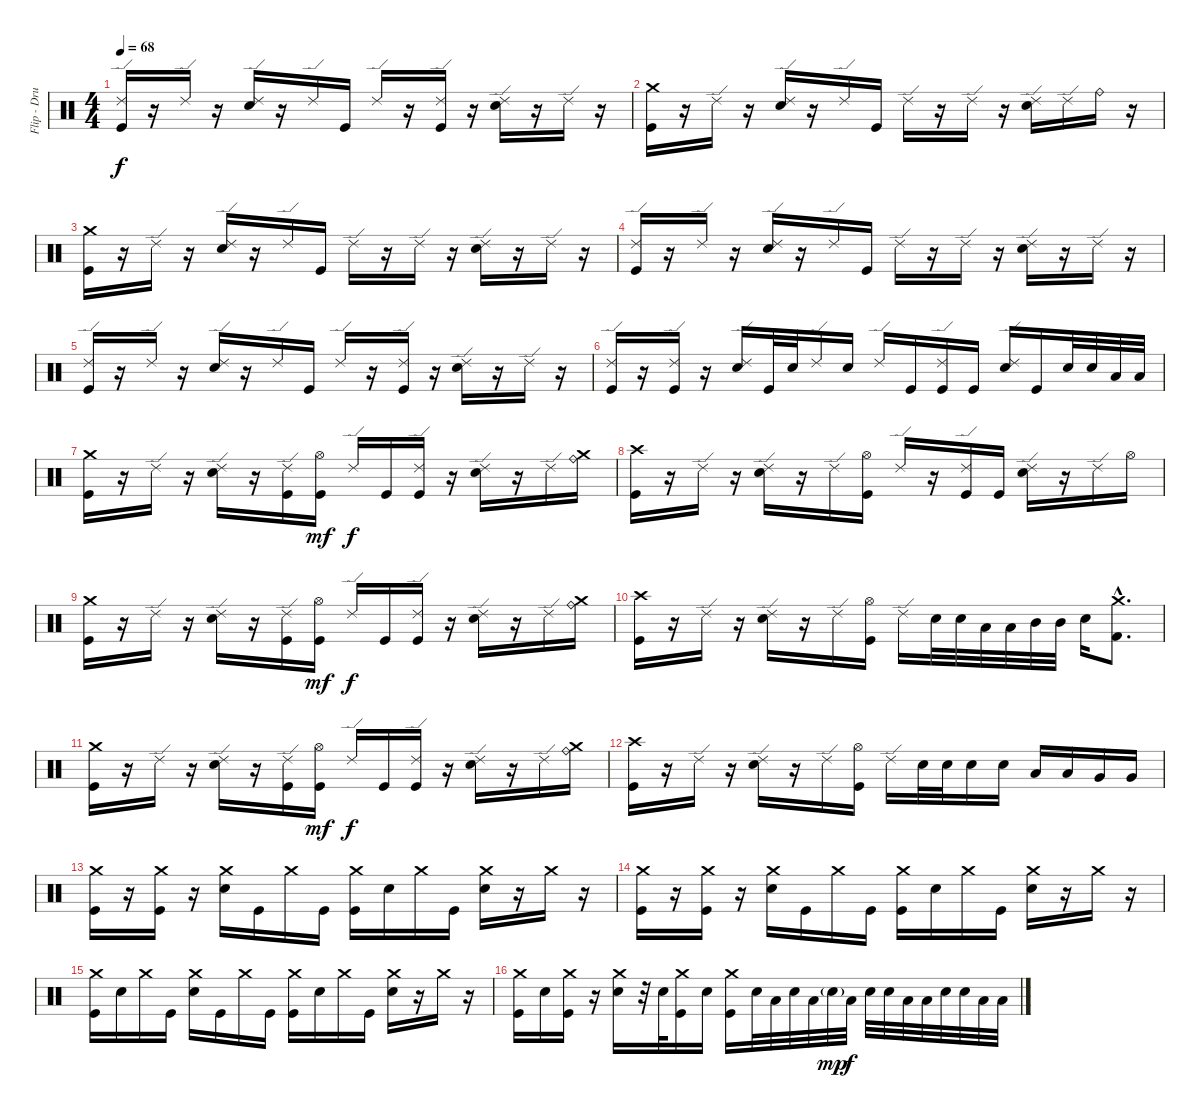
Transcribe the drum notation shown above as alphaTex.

\track ("Flip - Drums" "Flip - Dru") {instrument percussion}
\staff {score}
\articulation defaults
\ts (4 4)
\tempo 68
\clef neutral
\ks c
("Ride (edge) 2" "Kick (hit)").16{dy f} r.16 "Ride (edge) 2".16 r.16 ("Ride (edge) 2" "Snare (hit) 2").16 r.16 "Ride (edge) 2".16 "Kick (hit)".16 "Ride (edge) 2".16 r.16 ("Ride (edge) 2" "Kick (hit)").16 r.16 ("Ride (edge) 2" "Snare (hit) 2").16 r.16 "Ride (edge) 2".16 r.16 |
("Crash medium (hit)" "Kick (hit)").16 r.16 "Ride (edge) 2".16 r.16 ("Ride (edge) 2" "Snare (hit) 2").16 r.16 "Ride (edge) 2".16 "Kick (hit)".16 "Ride (edge) 2".16 r.16 "Ride (edge) 2".16 r.16 ("Ride (edge) 2" "Snare (hit) 2").16 "Ride (edge) 2".16 "Ride (bell)".16 r.16 |
("Crash medium (hit)" "Kick (hit)").16 r.16 "Ride (edge) 2".16 r.16 ("Ride (edge) 2" "Snare (hit) 2").16 r.16 "Ride (edge) 2".16 "Kick (hit)".16 "Ride (edge) 2".16 r.16 "Ride (edge) 2".16 r.16 ("Ride (edge) 2" "Snare (hit) 2").16 r.16 "Ride (edge) 2".16 r.16 |
("Ride (edge) 2" "Kick (hit)").16 r.16 "Ride (edge) 2".16 r.16 ("Ride (edge) 2" "Snare (hit) 2").16 r.16 "Ride (edge) 2".16 "Kick (hit)".16 "Ride (edge) 2".16 r.16 "Ride (edge) 2".16 r.16 ("Ride (edge) 2" "Snare (hit) 2").16 r.16 "Ride (edge) 2".16 r.16 |
("Ride (edge) 2" "Kick (hit)").16 r.16 "Ride (edge) 2".16 r.16 ("Ride (edge) 2" "Snare (hit) 2").16 r.16 "Ride (edge) 2".16 "Kick (hit)".16 "Ride (edge) 2".16 r.16 ("Ride (edge) 2" "Kick (hit)").16 r.16 ("Ride (edge) 2" "Snare (hit) 2").16 r.16 "Ride (edge) 2".16 r.16 |
("Ride (edge) 2" "Kick (hit)").16 r.16 ("Ride (edge) 2" "Kick (hit)").16 r.16 ("Ride (edge) 2" "Snare (hit) 2").16 "Kick (hit)".32 "Snare (hit) 2".32 "Ride (edge) 2".16 "Snare (hit) 2".16 "Ride (edge) 2".16 "Kick (hit)".16 ("Ride (edge) 2" "Kick (hit)").16 "Kick (hit)".16 ("Ride (edge) 2" "Snare (hit) 2").16 "Kick (hit)".16 "Snare (hit) 2".32 "Snare (hit) 2".32 "Low Tom (hit)".32 "Low Tom (hit)".32 |
("Crash medium (hit)" "Kick (hit)").16 r.16 "Ride (edge) 2".16 r.16 ("Ride (edge) 2" "Snare (hit) 2").16 r.16 ("Ride (edge) 2" "Kick (hit)").16 ("Hi-Hat (open)" "Kick (hit)").16{dy mf} "Ride (edge) 2".16{dy f} "Kick (hit)".16 ("Ride (edge) 2" "Kick (hit)").16 r.16 ("Ride (edge) 2" "Snare (hit) 2").16 r.16 "Ride (edge) 2".16 ("Crash medium (hit)" "Ride (bell)").16 |
("Crash high (hit)" "Kick (hit)").16 r.16 "Ride (edge) 2".16 r.16 ("Ride (edge) 2" "Snare (hit) 2").16 r.16 "Ride (edge) 2".16 ("Hi-Hat (open)" "Kick (hit)").16 "Ride (edge) 2".16 r.16 ("Ride (edge) 2" "Kick (hit)").16 "Kick (hit)".16 ("Ride (edge) 2" "Snare (hit) 2").16 r.16 "Ride (edge) 2".16 "Hi-Hat (open)".16 |
("Crash medium (hit)" "Kick (hit)").16 r.16 "Ride (edge) 2".16 r.16 ("Ride (edge) 2" "Snare (hit) 2").16 r.16 ("Ride (edge) 2" "Kick (hit)").16 ("Hi-Hat (open)" "Kick (hit)").16{dy mf} "Ride (edge) 2".16{dy f} "Kick (hit)".16 ("Ride (edge) 2" "Kick (hit)").16 r.16 ("Ride (edge) 2" "Snare (hit) 2").16 r.16 "Ride (edge) 2".16 ("Crash medium (hit)" "Ride (bell)").16 |
("Crash high (hit)" "Kick (hit)").16 r.16 "Ride (edge) 2".16 r.16 ("Ride (edge) 2" "Snare (hit) 2").16 r.16 "Ride (edge) 2".16 ("Hi-Hat (open)" "Kick (hit)").16 "Ride (edge) 2".16 "Snare (hit) 2".32 "Snare (hit) 2".32 "Low Tom (hit)".32 "Low Tom (hit)".32 "Mid Tom (hit)".32 "Mid Tom (hit)".32 "Snare (hit) 2".16 ("Crash medium (hit)"{hac} "Kick (hit) 2"{hac}).8{d} |
("Crash medium (hit)" "Kick (hit)").16 r.16 "Ride (edge) 2".16 r.16 ("Ride (edge) 2" "Snare (hit) 2").16 r.16 ("Ride (edge) 2" "Kick (hit)").16 ("Hi-Hat (open)" "Kick (hit)").16{dy mf} "Ride (edge) 2".16{dy f} "Kick (hit)".16 ("Ride (edge) 2" "Kick (hit)").16 r.16 ("Ride (edge) 2" "Snare (hit) 2").16 r.16 "Ride (edge) 2".16 ("Crash medium (hit)" "Ride (bell)").16 |
("Crash high (hit)" "Kick (hit)").16 r.16 "Ride (edge) 2".16 r.16 ("Ride (edge) 2" "Snare (hit) 2").16 r.16 "Ride (edge) 2".16 ("Hi-Hat (open)" "Kick (hit)").16 "Ride (edge) 2".16 "Snare (hit) 2".32 "Snare (hit) 2".32 "Snare (hit) 2".16 "Snare (hit) 2".16 "Low Tom (hit)".16 "Low Tom (hit)".16 "Very Low Tom (hit)".16 "Very Low Tom (hit)".16 |
("Crash medium (hit)" "Kick (hit)").16 r.16 ("Crash medium (hit)" "Kick (hit)").16 r.16 ("Crash medium (hit)" "Snare (hit) 2").16 "Kick (hit)".16 "Crash medium (hit)".16 "Kick (hit)".16 ("Crash medium (hit)" "Kick (hit)").16 "Snare (hit) 2".16 "Crash medium (hit)".16 "Kick (hit)".16 ("Crash medium (hit)" "Snare (hit) 2").16 r.16 "Crash medium (hit)".16 r.16 |
("Crash medium (hit)" "Kick (hit)").16 r.16 ("Crash medium (hit)" "Kick (hit)").16 r.16 ("Crash medium (hit)" "Snare (hit) 2").16 "Kick (hit)".16 "Crash medium (hit)".16 "Kick (hit)".16 ("Crash medium (hit)" "Kick (hit)").16 "Snare (hit) 2".16 "Crash medium (hit)".16 "Kick (hit)".16 ("Crash medium (hit)" "Snare (hit) 2").16 r.16 "Crash medium (hit)".16 r.16 |
("Crash medium (hit)" "Kick (hit)").16 "Snare (hit) 2".16 "Crash medium (hit)".16 "Kick (hit)".16 ("Crash medium (hit)" "Snare (hit) 2").16 "Kick (hit)".16 "Crash medium (hit)".16 "Kick (hit)".16 ("Crash medium (hit)" "Kick (hit)").16 "Snare (hit) 2".16 "Crash medium (hit)".16 "Kick (hit)".16 ("Crash medium (hit)" "Snare (hit) 2").16 r.16 "Crash medium (hit)".16 r.16 |
("Crash medium (hit)" "Kick (hit)").16 "Snare (hit) 2".16 ("Crash medium (hit)" "Kick (hit)").16 r.16 ("Crash medium (hit)" "Snare (hit) 2").16 r.32 "Snare (hit) 2".32 ("Crash medium (hit)" "Kick (hit)").16 "Snare (hit) 2".16 ("Crash medium (hit)" "Kick (hit)").16 "Snare (hit) 2".32 "Low Tom (hit)".32 "Snare (hit) 2".32 "Low Tom (hit)".32 "Snare (hit) 2"{g}.32{dy mp} "Low Tom (hit)".32{dy f} "Snare (hit) 2".32 "Snare (hit) 2".32 "Low Tom (hit)".32 "Low Tom (hit)".32 "Snare (hit) 2".32 "Snare (hit) 2".32 "Low Tom (hit)".32 "Low Tom (hit)".32
